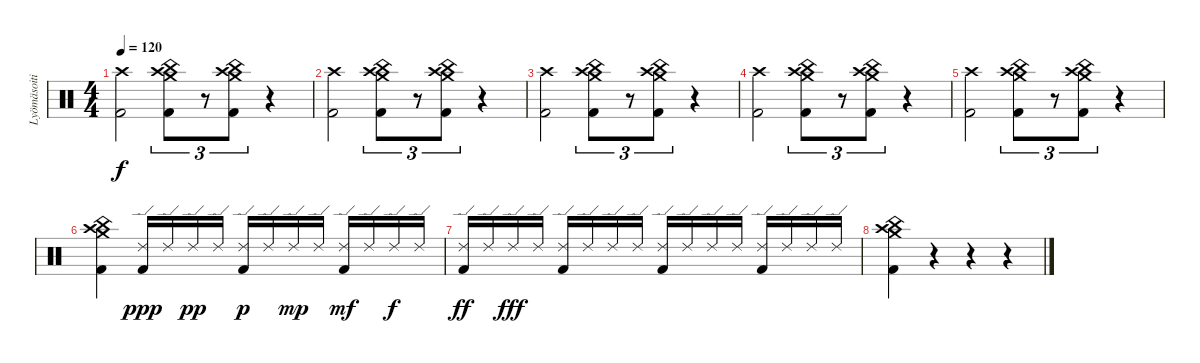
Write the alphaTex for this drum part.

\track ("Lyömäsoitin" "Lyömäsoiti") {instrument percussion}
\staff {score}
\articulation defaults
\ts (4 4)
\tempo 120
\clef neutral
\ks c
("Crash high (hit)" "Kick (hit) 2").2{dy f} ("Crash medium (hit)" "China (hit)" "Crash high (hit)" "Kick (hit) 2").8{tu (3 2)} r.8{tu (3 2)} ("Crash medium (hit)" "China (hit)" "Crash high (hit)" "Kick (hit) 2").8{tu (3 2)} r.4 |
("Crash high (hit)" "Kick (hit) 2").2 ("Crash medium (hit)" "China (hit)" "Crash high (hit)" "Kick (hit) 2").8{tu (3 2)} r.8{tu (3 2)} ("Crash medium (hit)" "China (hit)" "Crash high (hit)" "Kick (hit) 2").8{tu (3 2)} r.4 |
("Crash high (hit)" "Kick (hit) 2").2 ("Crash medium (hit)" "China (hit)" "Crash high (hit)" "Kick (hit) 2").8{tu (3 2)} r.8{tu (3 2)} ("Crash medium (hit)" "China (hit)" "Crash high (hit)" "Kick (hit) 2").8{tu (3 2)} r.4 |
("Crash high (hit)" "Kick (hit) 2").2 ("Crash medium (hit)" "China (hit)" "Crash high (hit)" "Kick (hit) 2").8{tu (3 2)} r.8{tu (3 2)} ("Crash medium (hit)" "China (hit)" "Crash high (hit)" "Kick (hit) 2").8{tu (3 2)} r.4 |
("Crash high (hit)" "Kick (hit) 2").2 ("Crash medium (hit)" "China (hit)" "Crash high (hit)" "Kick (hit) 2").8{tu (3 2)} r.8{tu (3 2)} ("Crash medium (hit)" "China (hit)" "Crash high (hit)" "Kick (hit) 2").8{tu (3 2)} r.4 |
("Crash high (hit)" "Crash medium (hit)" "China (hit)" "Kick (hit) 2").4 ("Ride (edge) 2" "Kick (hit) 2").16{dy ppp} "Ride (edge) 2".16 "Ride (edge) 2".16{dy pp} "Ride (edge) 2".16 ("Ride (edge) 2" "Kick (hit) 2").16{dy p} "Ride (edge) 2".16 "Ride (edge) 2".16{dy mp} "Ride (edge) 2".16 ("Ride (edge) 2" "Kick (hit) 2").16{dy mf} "Ride (edge) 2".16 "Ride (edge) 2".16{dy f} "Ride (edge) 2".16 |
("Ride (edge) 2" "Kick (hit) 2").16{dy ff} "Ride (edge) 2".16 "Ride (edge) 2".16{dy fff} "Ride (edge) 2".16 ("Ride (edge) 2" "Kick (hit) 2").16 "Ride (edge) 2".16 "Ride (edge) 2".16 "Ride (edge) 2".16 ("Ride (edge) 2" "Kick (hit) 2").16 "Ride (edge) 2".16 "Ride (edge) 2".16 "Ride (edge) 2".16 ("Ride (edge) 2" "Kick (hit) 2").16 "Ride (edge) 2".16 "Ride (edge) 2".16 "Ride (edge) 2".16 |
("Crash high (hit)" "Crash medium (hit)" "China (hit)" "Kick (hit) 2").4 r.4 r.4 r.4
